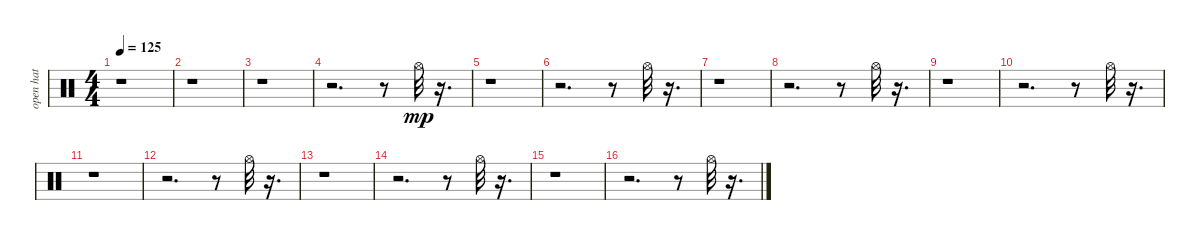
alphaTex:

\track ("open hat" "open hat") {instrument percussion}
\staff {score}
\articulation defaults
\ts (4 4)
\tempo 125
\clef neutral
\ks c
r.1{dy mp} |
r.1 |
r.1 |
r.2{d} r.8 "Hi-Hat (open)".32 r.16{d} |
r.1 |
r.2{d} r.8 "Hi-Hat (open)".32 r.16{d} |
r.1 |
r.2{d} r.8 "Hi-Hat (open)".32 r.16{d} |
r.1 |
r.2{d} r.8 "Hi-Hat (open)".32 r.16{d} |
r.1 |
r.2{d} r.8 "Hi-Hat (open)".32 r.16{d} |
r.1 |
r.2{d} r.8 "Hi-Hat (open)".32 r.16{d} |
r.1 |
r.2{d} r.8 "Hi-Hat (open)".32 r.16{d}
